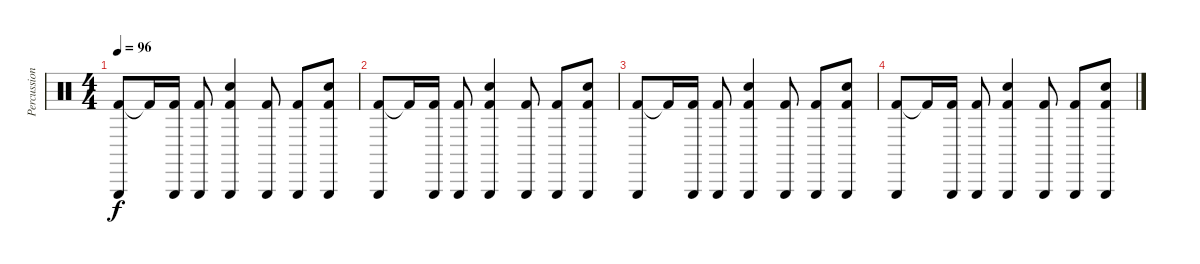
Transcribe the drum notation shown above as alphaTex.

\track ("Percussion 2" "Percussion") {instrument percussion}
\staff {score}
\articulation defaults
\ts (4 4)
\tempo 96
\clef neutral
\ks c
("Kick (hit) 2" "Triangle (hit)").8{dy f} "Kick (hit) 2"{t}.16 ("Kick (hit) 2" "Triangle (hit)").16 ("Kick (hit) 2" "Triangle (hit)").8 ("Kick (hit) 2" "Snare (hit) 2" "Triangle (hit)").4 ("Kick (hit) 2" "Triangle (hit)").8 ("Kick (hit) 2" "Triangle (hit)").8 ("Kick (hit) 2" "Snare (hit) 2" "Triangle (hit)").8 |
("Kick (hit) 2" "Triangle (hit)").8 "Kick (hit) 2"{t}.16 ("Kick (hit) 2" "Triangle (hit)").16 ("Kick (hit) 2" "Triangle (hit)").8 ("Kick (hit) 2" "Snare (hit) 2" "Triangle (hit)").4 ("Kick (hit) 2" "Triangle (hit)").8 ("Kick (hit) 2" "Triangle (hit)").8 ("Kick (hit) 2" "Snare (hit) 2" "Triangle (hit)").8 |
("Kick (hit) 2" "Triangle (hit)").8 "Kick (hit) 2"{t}.16 ("Kick (hit) 2" "Triangle (hit)").16 ("Kick (hit) 2" "Triangle (hit)").8 ("Kick (hit) 2" "Snare (hit) 2" "Triangle (hit)").4 ("Kick (hit) 2" "Triangle (hit)").8 ("Kick (hit) 2" "Triangle (hit)").8 ("Kick (hit) 2" "Snare (hit) 2" "Triangle (hit)").8 |
("Kick (hit) 2" "Triangle (hit)").8 "Kick (hit) 2"{t}.16 ("Kick (hit) 2" "Triangle (hit)").16 ("Kick (hit) 2" "Triangle (hit)").8 ("Kick (hit) 2" "Snare (hit) 2" "Triangle (hit)").4 ("Kick (hit) 2" "Triangle (hit)").8 ("Kick (hit) 2" "Triangle (hit)").8 ("Kick (hit) 2" "Snare (hit) 2" "Triangle (hit)").8
